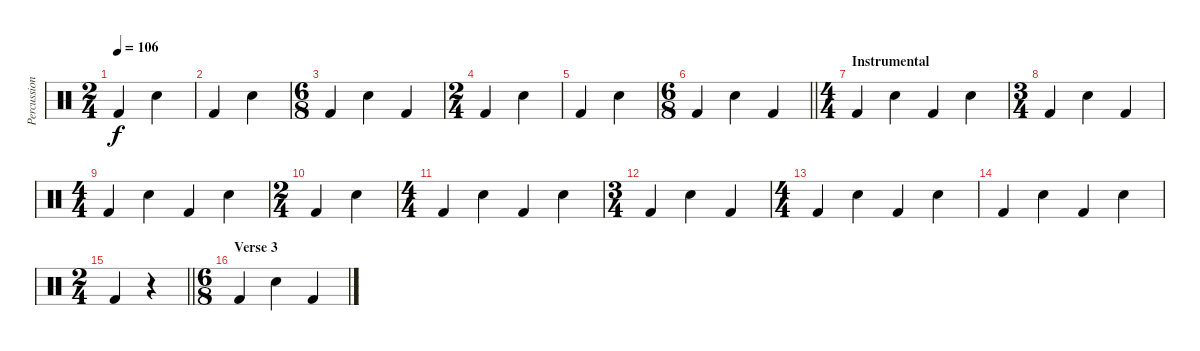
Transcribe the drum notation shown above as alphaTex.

\track ("Percussion" "Percussion") {instrument percussion}
\staff {score}
\articulation defaults
\ts (2 4)
\tempo 106
\clef neutral
\ks c "Kick (hit) 2".4{dy f} "Snare (hit) 2".4
|
"Kick (hit) 2".4 "Snare (hit) 2".4 |
\ts (6 8)
"Kick (hit) 2".4 "Snare (hit) 2".4 "Kick (hit) 2".4 |
\ts (2 4)
"Kick (hit) 2".4 "Snare (hit) 2".4 |
"Kick (hit) 2".4 "Snare (hit) 2".4 |
\ts (6 8)
\barLineRight lightlight "Kick (hit) 2".4 "Snare (hit) 2".4 "Kick (hit) 2".4
|
\ts (4 4)
\section ("" "Instrumental")
"Kick (hit) 2".4 "Snare (hit) 2".4 "Kick (hit) 2".4 "Snare (hit) 2".4 |
\ts (3 4)
"Kick (hit) 2".4 "Snare (hit) 2".4 "Kick (hit) 2".4 |
\ts (4 4)
"Kick (hit) 2".4 "Snare (hit) 2".4 "Kick (hit) 2".4 "Snare (hit) 2".4 |
\ts (2 4)
"Kick (hit) 2".4 "Snare (hit) 2".4 |
\ts (4 4)
"Kick (hit) 2".4 "Snare (hit) 2".4 "Kick (hit) 2".4 "Snare (hit) 2".4 |
\ts (3 4)
"Kick (hit) 2".4 "Snare (hit) 2".4 "Kick (hit) 2".4 |
\ts (4 4)
"Kick (hit) 2".4 "Snare (hit) 2".4 "Kick (hit) 2".4 "Snare (hit) 2".4 |
"Kick (hit) 2".4 "Snare (hit) 2".4 "Kick (hit) 2".4 "Snare (hit) 2".4 |
\ts (2 4)
\barLineRight lightlight "Kick (hit) 2".4
r.4 |
\ts (6 8)
\section ("" "Verse 3")
"Kick (hit) 2".4 "Snare (hit) 2".4 "Kick (hit) 2".4
